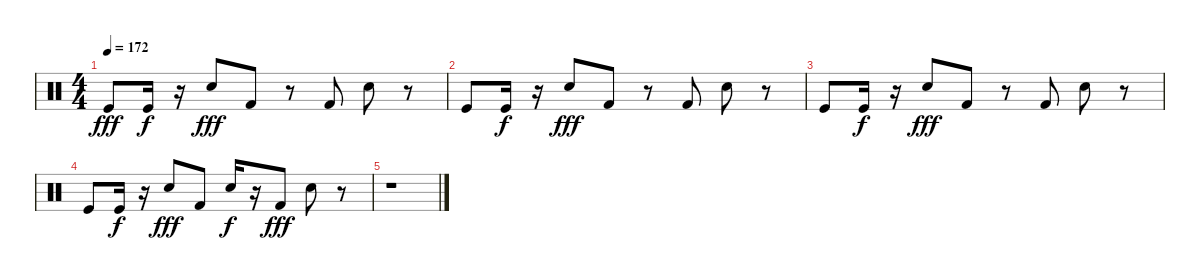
\track "" {instrument percussion}
\staff {score}
\articulation defaults
\ts (4 4)
\tempo 172
\clef neutral
\ks c "Kick (hit)".8{dy fff} "Kick (hit)".16{dy f}
r.16 "Snare (hit) 2".8{dy fff} "Kick (hit) 2".8 r.8 "Kick (hit) 2".8 "Snare (hit) 2".8 r.8 |
"Kick (hit)".8 "Kick (hit)".16{dy f} r.16 "Snare (hit) 2".8{dy fff} "Kick (hit) 2".8 r.8 "Kick (hit) 2".8 "Snare (hit) 2".8 r.8 |
"Kick (hit)".8 "Kick (hit)".16{dy f} r.16 "Snare (hit) 2".8{dy fff} "Kick (hit) 2".8 r.8 "Kick (hit) 2".8 "Snare (hit) 2".8 r.8 |
"Kick (hit)".8 "Kick (hit)".16{dy f} r.16 "Snare (hit) 2".8{dy fff} "Kick (hit) 2".8 "Snare (hit) 2".16{dy f} r.16 "Kick (hit) 2".8{dy fff} "Snare (hit) 2".8 r.8 |
r.1
